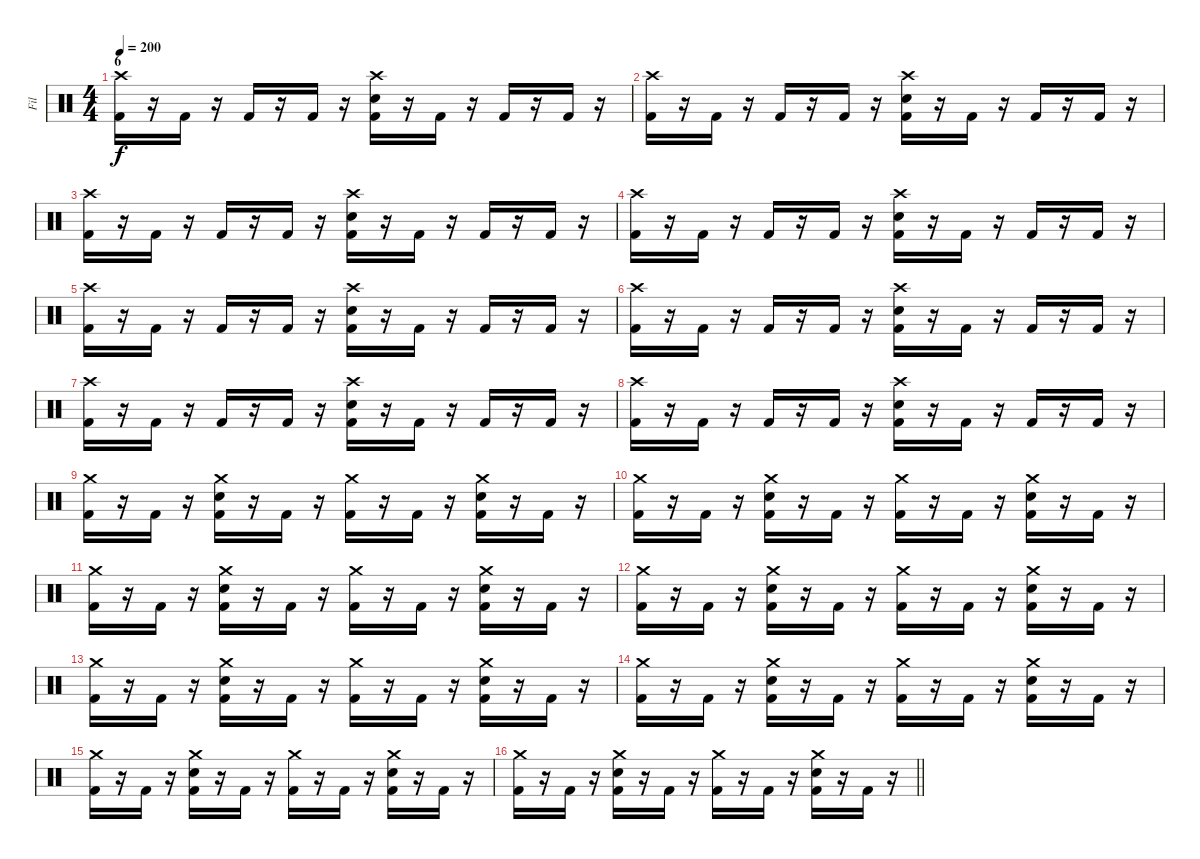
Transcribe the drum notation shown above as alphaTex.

\track ("Fil" "Fil") {instrument percussion}
\staff {score}
\articulation defaults
\ts (4 4)
\section ("" "6")
\tempo 200
\clef neutral
\ks c
("Crash high (hit)" "Kick (hit) 2").16{dy f} r.16 "Kick (hit) 2".16 r.16 "Kick (hit) 2".16 r.16 "Kick (hit) 2".16 r.16 ("Crash high (hit)" "Electric Snare (hit)" "Kick (hit) 2").16 r.16 "Kick (hit) 2".16 r.16 "Kick (hit) 2".16 r.16 "Kick (hit) 2".16 r.16 |
("Crash high (hit)" "Kick (hit) 2").16 r.16 "Kick (hit) 2".16 r.16 "Kick (hit) 2".16 r.16 "Kick (hit) 2".16 r.16 ("Crash high (hit)" "Electric Snare (hit)" "Kick (hit) 2").16 r.16 "Kick (hit) 2".16 r.16 "Kick (hit) 2".16 r.16 "Kick (hit) 2".16 r.16 |
("Crash high (hit)" "Kick (hit) 2").16 r.16 "Kick (hit) 2".16 r.16 "Kick (hit) 2".16 r.16 "Kick (hit) 2".16 r.16 ("Crash high (hit)" "Electric Snare (hit)" "Kick (hit) 2").16 r.16 "Kick (hit) 2".16 r.16 "Kick (hit) 2".16 r.16 "Kick (hit) 2".16 r.16 |
("Crash high (hit)" "Kick (hit) 2").16 r.16 "Kick (hit) 2".16 r.16 "Kick (hit) 2".16 r.16 "Kick (hit) 2".16 r.16 ("Crash high (hit)" "Electric Snare (hit)" "Kick (hit) 2").16 r.16 "Kick (hit) 2".16 r.16 "Kick (hit) 2".16 r.16 "Kick (hit) 2".16 r.16 |
("Crash high (hit)" "Kick (hit) 2").16 r.16 "Kick (hit) 2".16 r.16 "Kick (hit) 2".16 r.16 "Kick (hit) 2".16 r.16 ("Crash high (hit)" "Electric Snare (hit)" "Kick (hit) 2").16 r.16 "Kick (hit) 2".16 r.16 "Kick (hit) 2".16 r.16 "Kick (hit) 2".16 r.16 |
("Crash high (hit)" "Kick (hit) 2").16 r.16 "Kick (hit) 2".16 r.16 "Kick (hit) 2".16 r.16 "Kick (hit) 2".16 r.16 ("Crash high (hit)" "Electric Snare (hit)" "Kick (hit) 2").16 r.16 "Kick (hit) 2".16 r.16 "Kick (hit) 2".16 r.16 "Kick (hit) 2".16 r.16 |
("Crash high (hit)" "Kick (hit) 2").16 r.16 "Kick (hit) 2".16 r.16 "Kick (hit) 2".16 r.16 "Kick (hit) 2".16 r.16 ("Crash high (hit)" "Electric Snare (hit)" "Kick (hit) 2").16 r.16 "Kick (hit) 2".16 r.16 "Kick (hit) 2".16 r.16 "Kick (hit) 2".16 r.16 |
("Crash high (hit)" "Kick (hit) 2").16 r.16 "Kick (hit) 2".16 r.16 "Kick (hit) 2".16 r.16 "Kick (hit) 2".16 r.16 ("Crash high (hit)" "Electric Snare (hit)" "Kick (hit) 2").16 r.16 "Kick (hit) 2".16 r.16 "Kick (hit) 2".16 r.16 "Kick (hit) 2".16 r.16 |
("Crash medium (hit)" "Kick (hit) 2").16 r.16 "Kick (hit) 2".16 r.16 ("Crash medium (hit)" "Electric Snare (hit)" "Kick (hit) 2").16 r.16 "Kick (hit) 2".16 r.16 ("Crash medium (hit)" "Kick (hit) 2").16 r.16 "Kick (hit) 2".16 r.16 ("Crash medium (hit)" "Electric Snare (hit)" "Kick (hit) 2").16 r.16 "Kick (hit) 2".16 r.16 |
("Crash medium (hit)" "Kick (hit) 2").16 r.16 "Kick (hit) 2".16 r.16 ("Crash medium (hit)" "Electric Snare (hit)" "Kick (hit) 2").16 r.16 "Kick (hit) 2".16 r.16 ("Crash medium (hit)" "Kick (hit) 2").16 r.16 "Kick (hit) 2".16 r.16 ("Crash medium (hit)" "Electric Snare (hit)" "Kick (hit) 2").16 r.16 "Kick (hit) 2".16 r.16 |
("Crash medium (hit)" "Kick (hit) 2").16 r.16 "Kick (hit) 2".16 r.16 ("Crash medium (hit)" "Electric Snare (hit)" "Kick (hit) 2").16 r.16 "Kick (hit) 2".16 r.16 ("Crash medium (hit)" "Kick (hit) 2").16 r.16 "Kick (hit) 2".16 r.16 ("Crash medium (hit)" "Electric Snare (hit)" "Kick (hit) 2").16 r.16 "Kick (hit) 2".16 r.16 |
("Crash medium (hit)" "Kick (hit) 2").16 r.16 "Kick (hit) 2".16 r.16 ("Crash medium (hit)" "Electric Snare (hit)" "Kick (hit) 2").16 r.16 "Kick (hit) 2".16 r.16 ("Crash medium (hit)" "Kick (hit) 2").16 r.16 "Kick (hit) 2".16 r.16 ("Crash medium (hit)" "Electric Snare (hit)" "Kick (hit) 2").16 r.16 "Kick (hit) 2".16 r.16 |
("Crash medium (hit)" "Kick (hit) 2").16 r.16 "Kick (hit) 2".16 r.16 ("Crash medium (hit)" "Electric Snare (hit)" "Kick (hit) 2").16 r.16 "Kick (hit) 2".16 r.16 ("Crash medium (hit)" "Kick (hit) 2").16 r.16 "Kick (hit) 2".16 r.16 ("Crash medium (hit)" "Electric Snare (hit)" "Kick (hit) 2").16 r.16 "Kick (hit) 2".16 r.16 |
("Crash medium (hit)" "Kick (hit) 2").16 r.16 "Kick (hit) 2".16 r.16 ("Crash medium (hit)" "Electric Snare (hit)" "Kick (hit) 2").16 r.16 "Kick (hit) 2".16 r.16 ("Crash medium (hit)" "Kick (hit) 2").16 r.16 "Kick (hit) 2".16 r.16 ("Crash medium (hit)" "Electric Snare (hit)" "Kick (hit) 2").16 r.16 "Kick (hit) 2".16 r.16 |
("Crash medium (hit)" "Kick (hit) 2").16 r.16 "Kick (hit) 2".16 r.16 ("Crash medium (hit)" "Electric Snare (hit)" "Kick (hit) 2").16 r.16 "Kick (hit) 2".16 r.16 ("Crash medium (hit)" "Kick (hit) 2").16 r.16 "Kick (hit) 2".16 r.16 ("Crash medium (hit)" "Electric Snare (hit)" "Kick (hit) 2").16 r.16 "Kick (hit) 2".16 r.16 |
\barLineRight lightlight
("Crash medium (hit)" "Kick (hit) 2").16 r.16 "Kick (hit) 2".16 r.16 ("Crash medium (hit)" "Electric Snare (hit)" "Kick (hit) 2").16 r.16 "Kick (hit) 2".16 r.16 ("Crash medium (hit)" "Kick (hit) 2").16 r.16 "Kick (hit) 2".16 r.16 ("Crash medium (hit)" "Electric Snare (hit)" "Kick (hit) 2").16 r.16 "Kick (hit) 2".16 r.16
